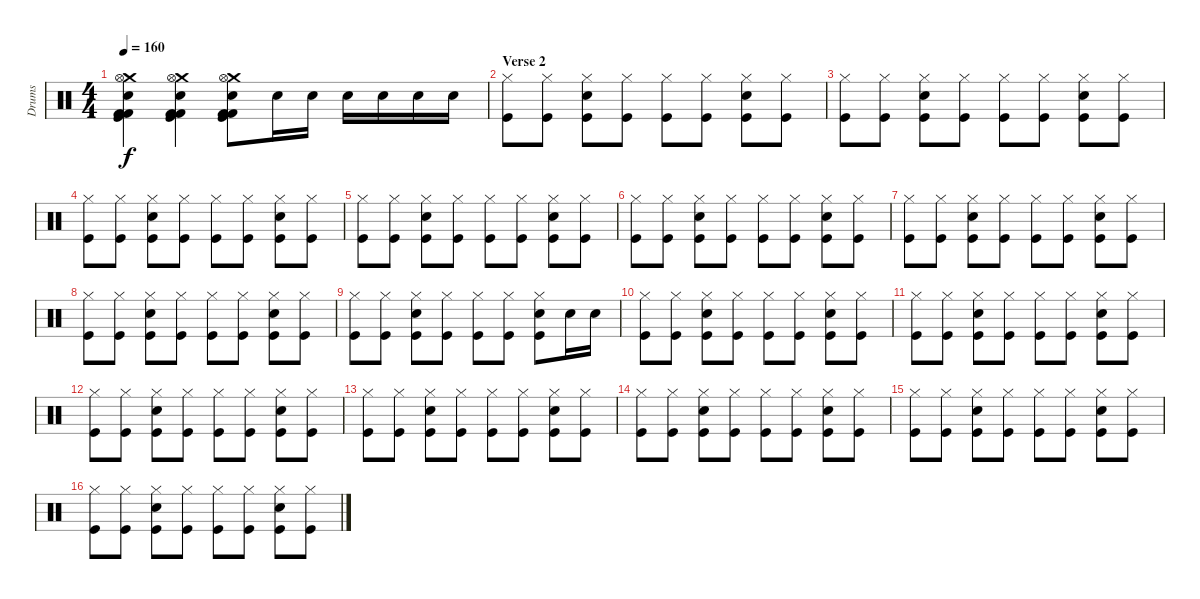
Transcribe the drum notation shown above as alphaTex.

\track ("Drums" "Drums") {instrument percussion}
\staff {score}
\articulation defaults
\ts (4 4)
\tempo 160
\clef neutral
\ks c
("Crash medium (hit)" "Hi-Hat (open)" "Electric Snare (hit)" "Kick (hit) 2" "Kick (hit)" "Kick (hit) 2").4{dy f} ("Crash medium (hit)" "Hi-Hat (open)" "Electric Snare (hit)" "Kick (hit) 2" "Kick (hit)" "Kick (hit) 2").4 ("Crash medium (hit)" "Hi-Hat (open)" "Electric Snare (hit)" "Kick (hit) 2" "Kick (hit)" "Kick (hit) 2").8 "Electric Snare (hit)".16 "Electric Snare (hit)".16 "Electric Snare (hit)".16 "Electric Snare (hit)".16 "Electric Snare (hit)".16 "Electric Snare (hit)".16 |
\section ("" "Verse 2")
("Hi-Hat (closed)" "Kick (hit)").8 ("Hi-Hat (closed)" "Kick (hit)").8 ("Hi-Hat (closed)" "Electric Snare (hit)" "Kick (hit)").8 ("Hi-Hat (closed)" "Kick (hit)").8 ("Hi-Hat (closed)" "Kick (hit)").8 ("Hi-Hat (closed)" "Kick (hit)").8 ("Hi-Hat (closed)" "Electric Snare (hit)" "Kick (hit)").8 ("Hi-Hat (closed)" "Kick (hit)").8 |
("Hi-Hat (closed)" "Kick (hit)").8 ("Hi-Hat (closed)" "Kick (hit)").8 ("Hi-Hat (closed)" "Electric Snare (hit)" "Kick (hit)").8 ("Hi-Hat (closed)" "Kick (hit)").8 ("Hi-Hat (closed)" "Kick (hit)").8 ("Hi-Hat (closed)" "Kick (hit)").8 ("Hi-Hat (closed)" "Electric Snare (hit)" "Kick (hit)").8 ("Hi-Hat (closed)" "Kick (hit)").8 |
("Hi-Hat (closed)" "Kick (hit)").8 ("Hi-Hat (closed)" "Kick (hit)").8 ("Hi-Hat (closed)" "Electric Snare (hit)" "Kick (hit)").8 ("Hi-Hat (closed)" "Kick (hit)").8 ("Hi-Hat (closed)" "Kick (hit)").8 ("Hi-Hat (closed)" "Kick (hit)").8 ("Hi-Hat (closed)" "Electric Snare (hit)" "Kick (hit)").8 ("Hi-Hat (closed)" "Kick (hit)").8 |
("Hi-Hat (closed)" "Kick (hit)").8 ("Hi-Hat (closed)" "Kick (hit)").8 ("Hi-Hat (closed)" "Electric Snare (hit)" "Kick (hit)").8 ("Hi-Hat (closed)" "Kick (hit)").8 ("Hi-Hat (closed)" "Kick (hit)").8 ("Hi-Hat (closed)" "Kick (hit)").8 ("Hi-Hat (closed)" "Electric Snare (hit)" "Kick (hit)").8 ("Hi-Hat (closed)" "Kick (hit)").8 |
("Hi-Hat (closed)" "Kick (hit)").8 ("Hi-Hat (closed)" "Kick (hit)").8 ("Hi-Hat (closed)" "Electric Snare (hit)" "Kick (hit)").8 ("Hi-Hat (closed)" "Kick (hit)").8 ("Hi-Hat (closed)" "Kick (hit)").8 ("Hi-Hat (closed)" "Kick (hit)").8 ("Hi-Hat (closed)" "Electric Snare (hit)" "Kick (hit)").8 ("Hi-Hat (closed)" "Kick (hit)").8 |
("Hi-Hat (closed)" "Kick (hit)").8 ("Hi-Hat (closed)" "Kick (hit)").8 ("Hi-Hat (closed)" "Electric Snare (hit)" "Kick (hit)").8 ("Hi-Hat (closed)" "Kick (hit)").8 ("Hi-Hat (closed)" "Kick (hit)").8 ("Hi-Hat (closed)" "Kick (hit)").8 ("Hi-Hat (closed)" "Electric Snare (hit)" "Kick (hit)").8 ("Hi-Hat (closed)" "Kick (hit)").8 |
("Hi-Hat (closed)" "Kick (hit)").8 ("Hi-Hat (closed)" "Kick (hit)").8 ("Hi-Hat (closed)" "Electric Snare (hit)" "Kick (hit)").8 ("Hi-Hat (closed)" "Kick (hit)").8 ("Hi-Hat (closed)" "Kick (hit)").8 ("Hi-Hat (closed)" "Kick (hit)").8 ("Hi-Hat (closed)" "Electric Snare (hit)" "Kick (hit)").8 ("Hi-Hat (closed)" "Kick (hit)").8 |
("Hi-Hat (closed)" "Kick (hit)").8 ("Hi-Hat (closed)" "Kick (hit)").8 ("Hi-Hat (closed)" "Electric Snare (hit)" "Kick (hit)").8 ("Hi-Hat (closed)" "Kick (hit)").8 ("Hi-Hat (closed)" "Kick (hit)").8 ("Hi-Hat (closed)" "Kick (hit)").8 ("Hi-Hat (closed)" "Electric Snare (hit)" "Kick (hit)").8 "Electric Snare (hit)".16 "Electric Snare (hit)".16 |
("Hi-Hat (closed)" "Kick (hit)").8 ("Hi-Hat (closed)" "Kick (hit)").8 ("Hi-Hat (closed)" "Electric Snare (hit)" "Kick (hit)").8 ("Hi-Hat (closed)" "Kick (hit)").8 ("Hi-Hat (closed)" "Kick (hit)").8 ("Hi-Hat (closed)" "Kick (hit)").8 ("Hi-Hat (closed)" "Electric Snare (hit)" "Kick (hit)").8 ("Hi-Hat (closed)" "Kick (hit)").8 |
("Hi-Hat (closed)" "Kick (hit)").8 ("Hi-Hat (closed)" "Kick (hit)").8 ("Hi-Hat (closed)" "Electric Snare (hit)" "Kick (hit)").8 ("Hi-Hat (closed)" "Kick (hit)").8 ("Hi-Hat (closed)" "Kick (hit)").8 ("Hi-Hat (closed)" "Kick (hit)").8 ("Hi-Hat (closed)" "Electric Snare (hit)" "Kick (hit)").8 ("Hi-Hat (closed)" "Kick (hit)").8 |
("Hi-Hat (closed)" "Kick (hit)").8 ("Hi-Hat (closed)" "Kick (hit)").8 ("Hi-Hat (closed)" "Electric Snare (hit)" "Kick (hit)").8 ("Hi-Hat (closed)" "Kick (hit)").8 ("Hi-Hat (closed)" "Kick (hit)").8 ("Hi-Hat (closed)" "Kick (hit)").8 ("Hi-Hat (closed)" "Electric Snare (hit)" "Kick (hit)").8 ("Hi-Hat (closed)" "Kick (hit)").8 |
("Hi-Hat (closed)" "Kick (hit)").8 ("Hi-Hat (closed)" "Kick (hit)").8 ("Hi-Hat (closed)" "Electric Snare (hit)" "Kick (hit)").8 ("Hi-Hat (closed)" "Kick (hit)").8 ("Hi-Hat (closed)" "Kick (hit)").8 ("Hi-Hat (closed)" "Kick (hit)").8 ("Hi-Hat (closed)" "Electric Snare (hit)" "Kick (hit)").8 ("Hi-Hat (closed)" "Kick (hit)").8 |
("Hi-Hat (closed)" "Kick (hit)").8 ("Hi-Hat (closed)" "Kick (hit)").8 ("Hi-Hat (closed)" "Electric Snare (hit)" "Kick (hit)").8 ("Hi-Hat (closed)" "Kick (hit)").8 ("Hi-Hat (closed)" "Kick (hit)").8 ("Hi-Hat (closed)" "Kick (hit)").8 ("Hi-Hat (closed)" "Electric Snare (hit)" "Kick (hit)").8 ("Hi-Hat (closed)" "Kick (hit)").8 |
("Hi-Hat (closed)" "Kick (hit)").8 ("Hi-Hat (closed)" "Kick (hit)").8 ("Hi-Hat (closed)" "Electric Snare (hit)" "Kick (hit)").8 ("Hi-Hat (closed)" "Kick (hit)").8 ("Hi-Hat (closed)" "Kick (hit)").8 ("Hi-Hat (closed)" "Kick (hit)").8 ("Hi-Hat (closed)" "Electric Snare (hit)" "Kick (hit)").8 ("Hi-Hat (closed)" "Kick (hit)").8 |
("Hi-Hat (closed)" "Kick (hit)").8 ("Hi-Hat (closed)" "Kick (hit)").8 ("Hi-Hat (closed)" "Electric Snare (hit)" "Kick (hit)").8 ("Hi-Hat (closed)" "Kick (hit)").8 ("Hi-Hat (closed)" "Kick (hit)").8 ("Hi-Hat (closed)" "Kick (hit)").8 ("Hi-Hat (closed)" "Electric Snare (hit)" "Kick (hit)").8 ("Hi-Hat (closed)" "Kick (hit)").8
